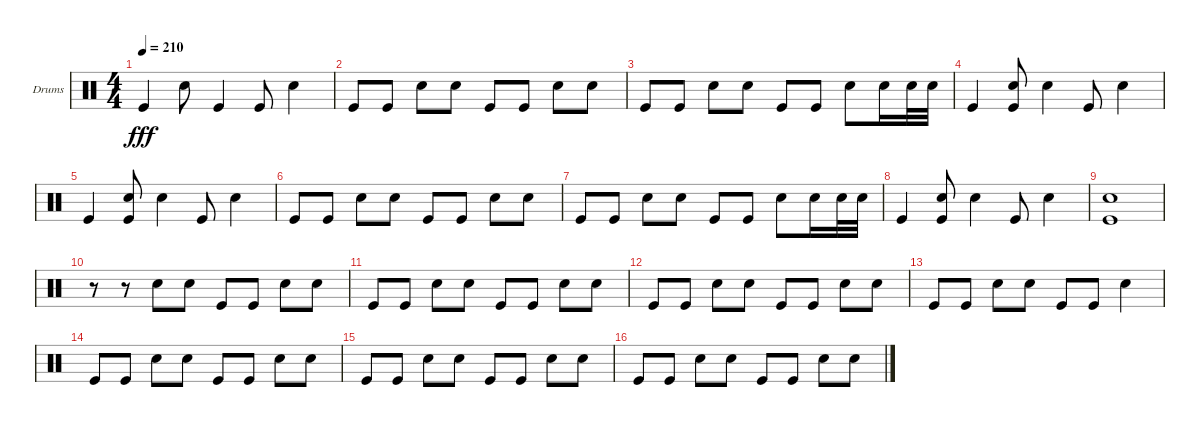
\defaultSystemsLayout 4
\bracketExtendMode groupsimilarinstruments
\firstSystemTrackNameOrientation horizontal
\otherSystemsTrackNameOrientation horizontal
\track ("Helders" "Drums") {instrument percussion}
\staff {score}
\articulation defaults
\ts (4 4)
\tempo 210
\clef neutral
\ks c "Kick (hit)".4{dy fff} "Snare (hit) 2".8 "Kick (hit)".4 "Kick (hit)".8 "Snare (hit) 2".4
|
"Kick (hit)".8 "Kick (hit)".8 "Snare (hit) 2".8 "Snare (hit) 2".8 "Kick (hit)".8 "Kick (hit)".8 "Snare (hit) 2".8 "Snare (hit) 2".8 |
"Kick (hit)".8 "Kick (hit)".8 "Snare (hit) 2".8 "Snare (hit) 2".8 "Kick (hit)".8 "Kick (hit)".8 "Snare (hit) 2".8 "Snare (hit) 2".16 "Snare (hit) 2".32 "Snare (hit) 2".32 |
"Kick (hit)".4 ("Kick (hit)" "Snare (hit) 2").8 "Snare (hit) 2".4 "Kick (hit)".8 "Snare (hit) 2".4 |
"Kick (hit)".4 ("Kick (hit)" "Snare (hit) 2").8 "Snare (hit) 2".4 "Kick (hit)".8 "Snare (hit) 2".4 |
"Kick (hit)".8 "Kick (hit)".8 "Snare (hit) 2".8 "Snare (hit) 2".8 "Kick (hit)".8 "Kick (hit)".8 "Snare (hit) 2".8 "Snare (hit) 2".8 |
"Kick (hit)".8 "Kick (hit)".8 "Snare (hit) 2".8 "Snare (hit) 2".8 "Kick (hit)".8 "Kick (hit)".8 "Snare (hit) 2".8 "Snare (hit) 2".16 "Snare (hit) 2".32 "Snare (hit) 2".32 |
"Kick (hit)".4 ("Kick (hit)" "Snare (hit) 2").8 "Snare (hit) 2".4 "Kick (hit)".8 "Snare (hit) 2".4 |
("Snare (hit) 2" "Kick (hit)").1 |
r.8 r.8 "Snare (hit) 2".8 "Snare (hit) 2".8 "Kick (hit)".8 "Kick (hit)".8 "Snare (hit) 2".8 "Snare (hit) 2".8 |
"Kick (hit)".8 "Kick (hit)".8 "Snare (hit) 2".8 "Snare (hit) 2".8 "Kick (hit)".8 "Kick (hit)".8 "Snare (hit) 2".8 "Snare (hit) 2".8 |
"Kick (hit)".8 "Kick (hit)".8 "Snare (hit) 2".8 "Snare (hit) 2".8 "Kick (hit)".8 "Kick (hit)".8 "Snare (hit) 2".8 "Snare (hit) 2".8 |
"Kick (hit)".8 "Kick (hit)".8 "Snare (hit) 2".8 "Snare (hit) 2".8 "Kick (hit)".8 "Kick (hit)".8 "Snare (hit) 2".4 |
"Kick (hit)".8 "Kick (hit)".8 "Snare (hit) 2".8 "Snare (hit) 2".8 "Kick (hit)".8 "Kick (hit)".8 "Snare (hit) 2".8 "Snare (hit) 2".8 |
"Kick (hit)".8 "Kick (hit)".8 "Snare (hit) 2".8 "Snare (hit) 2".8 "Kick (hit)".8 "Kick (hit)".8 "Snare (hit) 2".8 "Snare (hit) 2".8 |
"Kick (hit)".8 "Kick (hit)".8 "Snare (hit) 2".8 "Snare (hit) 2".8 "Kick (hit)".8 "Kick (hit)".8 "Snare (hit) 2".8 "Snare (hit) 2".8
